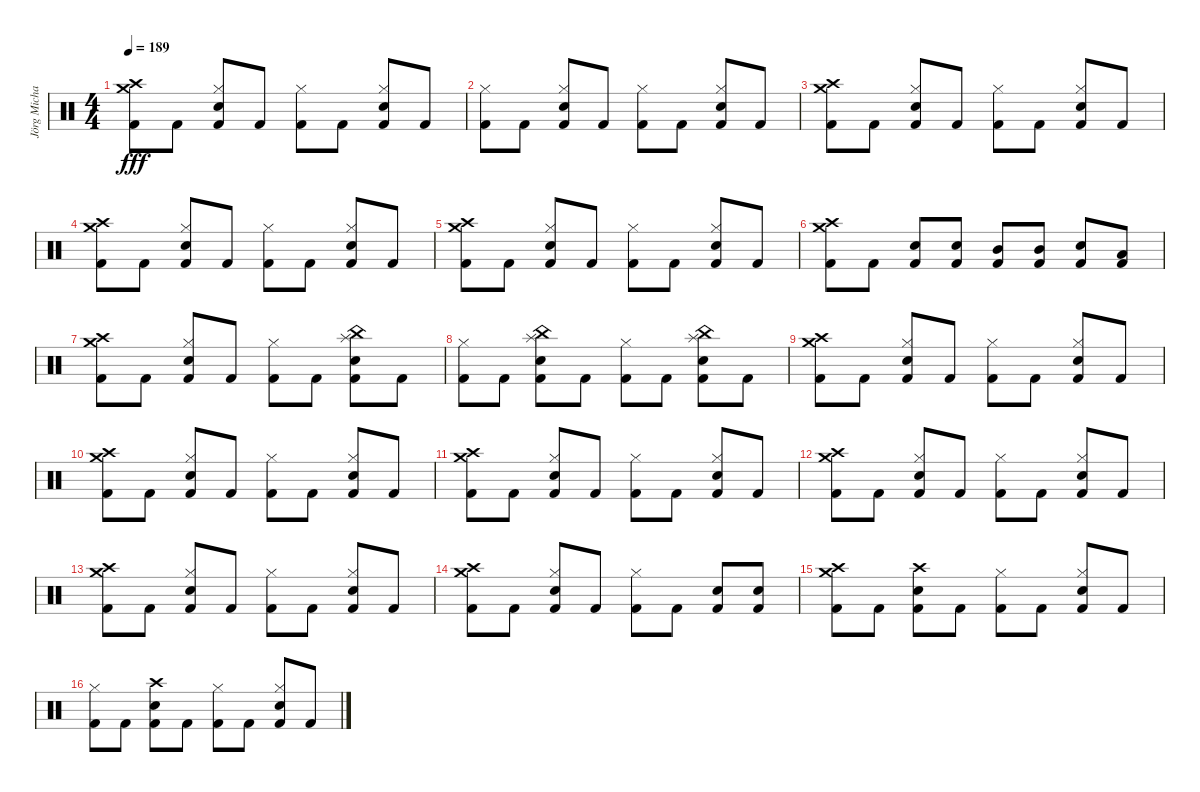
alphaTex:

\track ("Jörg Michael" "Jörg Micha") {instrument percussion}
\staff {score}
\articulation defaults
\ts (4 4)
\tempo 189
\clef neutral
\ks c
("Crash high (hit)" "Crash medium (hit)" "Kick (hit) 2").8{dy fff} "Kick (hit) 2".8 ("Hi-Hat (closed)" "Electric Snare (hit)" "Kick (hit) 2").8 "Kick (hit) 2".8 ("Hi-Hat (closed)" "Kick (hit) 2").8 "Kick (hit) 2".8 ("Hi-Hat (closed)" "Electric Snare (hit)" "Kick (hit) 2").8 "Kick (hit) 2".8 |
("Hi-Hat (closed)" "Kick (hit) 2").8 "Kick (hit) 2".8 ("Hi-Hat (closed)" "Electric Snare (hit)" "Kick (hit) 2").8 "Kick (hit) 2".8 ("Hi-Hat (closed)" "Kick (hit) 2").8 "Kick (hit) 2".8 ("Hi-Hat (closed)" "Electric Snare (hit)" "Kick (hit) 2").8 "Kick (hit) 2".8 |
("Crash high (hit)" "Crash medium (hit)" "Kick (hit) 2").8 "Kick (hit) 2".8 ("Hi-Hat (closed)" "Electric Snare (hit)" "Kick (hit) 2").8 "Kick (hit) 2".8 ("Hi-Hat (closed)" "Kick (hit) 2").8 "Kick (hit) 2".8 ("Hi-Hat (closed)" "Electric Snare (hit)" "Kick (hit) 2").8 "Kick (hit) 2".8 |
("Crash high (hit)" "Crash medium (hit)" "Kick (hit) 2").8 "Kick (hit) 2".8 ("Hi-Hat (closed)" "Electric Snare (hit)" "Kick (hit) 2").8 "Kick (hit) 2".8 ("Hi-Hat (closed)" "Kick (hit) 2").8 "Kick (hit) 2".8 ("Hi-Hat (closed)" "Electric Snare (hit)" "Kick (hit) 2").8 "Kick (hit) 2".8 |
("Crash high (hit)" "Crash medium (hit)" "Kick (hit) 2").8 "Kick (hit) 2".8 ("Hi-Hat (closed)" "Electric Snare (hit)" "Kick (hit) 2").8 "Kick (hit) 2".8 ("Hi-Hat (closed)" "Kick (hit) 2").8 "Kick (hit) 2".8 ("Hi-Hat (closed)" "Electric Snare (hit)" "Kick (hit) 2").8 "Kick (hit) 2".8 |
("Crash high (hit)" "Crash medium (hit)" "Kick (hit) 2").8 "Kick (hit) 2".8 ("Electric Snare (hit)" "Kick (hit) 2").8 ("Electric Snare (hit)" "Kick (hit) 2").8 ("Mid Tom (hit)" "Kick (hit) 2").8 ("Mid Tom (hit)" "Kick (hit) 2").8 ("Electric Snare (hit)" "Kick (hit) 2").8 ("Low Tom (hit)" "Kick (hit) 2").8 |
("Crash high (hit)" "Crash medium (hit)" "Kick (hit) 2").8 "Kick (hit) 2".8 ("Hi-Hat (closed)" "Electric Snare (hit)" "Kick (hit) 2").8 "Kick (hit) 2".8 ("Hi-Hat (closed)" "Kick (hit) 2").8 "Kick (hit) 2".8 ("China (hit)" "Splash (hit)" "Electric Snare (hit)" "Kick (hit) 2").8 "Kick (hit) 2".8 |
("Hi-Hat (closed)" "Kick (hit) 2").8 "Kick (hit) 2".8 ("China (hit)" "Splash (hit)" "Electric Snare (hit)" "Kick (hit) 2").8 "Kick (hit) 2".8 ("Hi-Hat (closed)" "Kick (hit) 2").8 "Kick (hit) 2".8 ("China (hit)" "Splash (hit)" "Electric Snare (hit)" "Kick (hit) 2").8 "Kick (hit) 2".8 |
("Crash high (hit)" "Crash medium (hit)" "Kick (hit) 2").8 "Kick (hit) 2".8 ("Hi-Hat (closed)" "Electric Snare (hit)" "Kick (hit) 2").8 "Kick (hit) 2".8 ("Hi-Hat (closed)" "Kick (hit) 2").8 "Kick (hit) 2".8 ("Hi-Hat (closed)" "Electric Snare (hit)" "Kick (hit) 2").8 "Kick (hit) 2".8 |
("Crash high (hit)" "Crash medium (hit)" "Kick (hit) 2").8 "Kick (hit) 2".8 ("Hi-Hat (closed)" "Electric Snare (hit)" "Kick (hit) 2").8 "Kick (hit) 2".8 ("Hi-Hat (closed)" "Kick (hit) 2").8 "Kick (hit) 2".8 ("Hi-Hat (closed)" "Electric Snare (hit)" "Kick (hit) 2").8 "Kick (hit) 2".8 |
("Crash high (hit)" "Crash medium (hit)" "Kick (hit) 2").8 "Kick (hit) 2".8 ("Hi-Hat (closed)" "Electric Snare (hit)" "Kick (hit) 2").8 "Kick (hit) 2".8 ("Hi-Hat (closed)" "Kick (hit) 2").8 "Kick (hit) 2".8 ("Hi-Hat (closed)" "Electric Snare (hit)" "Kick (hit) 2").8 "Kick (hit) 2".8 |
("Crash high (hit)" "Crash medium (hit)" "Kick (hit) 2").8 "Kick (hit) 2".8 ("Hi-Hat (closed)" "Electric Snare (hit)" "Kick (hit) 2").8 "Kick (hit) 2".8 ("Hi-Hat (closed)" "Kick (hit) 2").8 "Kick (hit) 2".8 ("Hi-Hat (closed)" "Electric Snare (hit)" "Kick (hit) 2").8 "Kick (hit) 2".8 |
("Crash high (hit)" "Crash medium (hit)" "Kick (hit) 2").8 "Kick (hit) 2".8 ("Hi-Hat (closed)" "Electric Snare (hit)" "Kick (hit) 2").8 "Kick (hit) 2".8 ("Hi-Hat (closed)" "Kick (hit) 2").8 "Kick (hit) 2".8 ("Hi-Hat (closed)" "Electric Snare (hit)" "Kick (hit) 2").8 "Kick (hit) 2".8 |
("Crash high (hit)" "Crash medium (hit)" "Kick (hit) 2").8 "Kick (hit) 2".8 ("Hi-Hat (closed)" "Electric Snare (hit)" "Kick (hit) 2").8 "Kick (hit) 2".8 ("Hi-Hat (closed)" "Kick (hit) 2").8 "Kick (hit) 2".8 ("Electric Snare (hit)" "Kick (hit) 2").8 ("Electric Snare (hit)" "Kick (hit) 2").8 |
("Crash high (hit)" "Crash medium (hit)" "Kick (hit) 2").8 "Kick (hit) 2".8 ("Crash high (hit)" "Electric Snare (hit)" "Kick (hit) 2").8 "Kick (hit) 2".8 ("Hi-Hat (closed)" "Kick (hit) 2").8 "Kick (hit) 2".8 ("Hi-Hat (closed)" "Electric Snare (hit)" "Kick (hit) 2").8 "Kick (hit) 2".8 |
("Hi-Hat (closed)" "Kick (hit) 2").8 "Kick (hit) 2".8 ("Crash high (hit)" "Electric Snare (hit)" "Kick (hit) 2").8 "Kick (hit) 2".8 ("Hi-Hat (closed)" "Kick (hit) 2").8 "Kick (hit) 2".8 ("Hi-Hat (closed)" "Electric Snare (hit)" "Kick (hit) 2").8 "Kick (hit) 2".8
